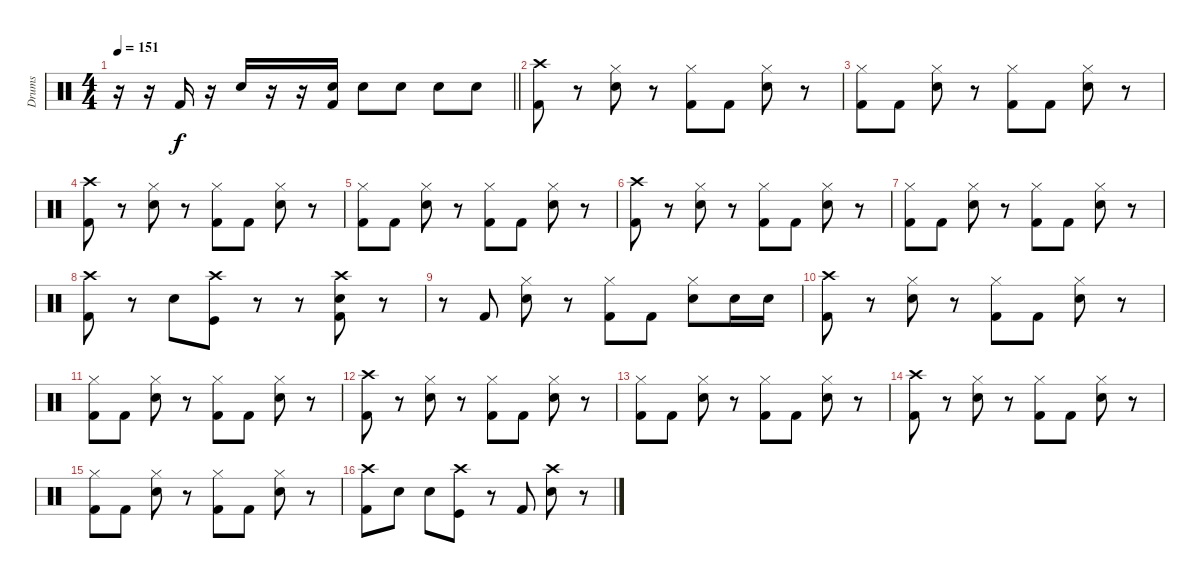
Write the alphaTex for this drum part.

\track ("Drums" "Drums") {instrument percussion}
\staff {score}
\articulation defaults
\ts (4 4)
\tempo 151
\clef neutral
\barLineRight lightlight
\ks c
r.16{dy f} r.16 "Kick (hit) 2".16 r.16 "Snare (hit) 2".16 r.16 r.16 ("Snare (hit) 2" "Kick (hit) 2").16 "Snare (hit) 2".8 "Snare (hit) 2".8 "Snare (hit) 2".8 "Snare (hit) 2".8 |
("Crash high (hit)" "Kick (hit) 2").8 r.8 ("Hi-Hat (closed)" "Snare (hit) 2").8 r.8 ("Hi-Hat (closed)" "Kick (hit) 2").8 "Kick (hit) 2".8 ("Hi-Hat (closed)" "Snare (hit) 2").8 r.8 |
("Hi-Hat (closed)" "Kick (hit) 2").8 "Kick (hit) 2".8 ("Hi-Hat (closed)" "Snare (hit) 2").8 r.8 ("Hi-Hat (closed)" "Kick (hit) 2").8 "Kick (hit) 2".8 ("Hi-Hat (closed)" "Snare (hit) 2").8 r.8 |
("Crash high (hit)" "Kick (hit) 2").8 r.8 ("Hi-Hat (closed)" "Snare (hit) 2").8 r.8 ("Hi-Hat (closed)" "Kick (hit) 2").8 "Kick (hit) 2".8 ("Hi-Hat (closed)" "Snare (hit) 2").8 r.8 |
("Hi-Hat (closed)" "Kick (hit) 2").8 "Kick (hit) 2".8 ("Hi-Hat (closed)" "Snare (hit) 2").8 r.8 ("Hi-Hat (closed)" "Kick (hit) 2").8 "Kick (hit) 2".8 ("Hi-Hat (closed)" "Snare (hit) 2").8 r.8 |
("Crash high (hit)" "Kick (hit) 2").8 r.8 ("Hi-Hat (closed)" "Snare (hit) 2").8 r.8 ("Hi-Hat (closed)" "Kick (hit) 2").8 "Kick (hit) 2".8 ("Hi-Hat (closed)" "Snare (hit) 2").8 r.8 |
("Hi-Hat (closed)" "Kick (hit) 2").8 "Kick (hit) 2".8 ("Hi-Hat (closed)" "Snare (hit) 2").8 r.8 ("Hi-Hat (closed)" "Kick (hit) 2").8 "Kick (hit) 2".8 ("Hi-Hat (closed)" "Snare (hit) 2").8 r.8 |
("Crash high (hit)" "Kick (hit) 2").8 r.8 "Snare (hit) 2".8 ("Crash high (hit)" "Kick (hit)").8 r.8 r.8 ("Crash high (hit)" "Snare (hit) 2" "Kick (hit) 2").8 r.8 |
r.8 "Kick (hit) 2".8 ("Hi-Hat (closed)" "Snare (hit) 2").8 r.8 ("Hi-Hat (closed)" "Kick (hit) 2").8 "Kick (hit) 2".8 ("Hi-Hat (closed)" "Snare (hit) 2").8 "Snare (hit) 2".16 "Snare (hit) 2".16 |
("Crash high (hit)" "Kick (hit) 2").8 r.8 ("Hi-Hat (closed)" "Snare (hit) 2").8 r.8 ("Hi-Hat (closed)" "Kick (hit) 2").8 "Kick (hit) 2".8 ("Hi-Hat (closed)" "Snare (hit) 2").8 r.8 |
("Hi-Hat (closed)" "Kick (hit) 2").8 "Kick (hit) 2".8 ("Hi-Hat (closed)" "Snare (hit) 2").8 r.8 ("Hi-Hat (closed)" "Kick (hit) 2").8 "Kick (hit) 2".8 ("Hi-Hat (closed)" "Snare (hit) 2").8 r.8 |
("Crash high (hit)" "Kick (hit) 2").8 r.8 ("Hi-Hat (closed)" "Snare (hit) 2").8 r.8 ("Hi-Hat (closed)" "Kick (hit) 2").8 "Kick (hit) 2".8 ("Hi-Hat (closed)" "Snare (hit) 2").8 r.8 |
("Hi-Hat (closed)" "Kick (hit) 2").8 "Kick (hit) 2".8 ("Hi-Hat (closed)" "Snare (hit) 2").8 r.8 ("Hi-Hat (closed)" "Kick (hit) 2").8 "Kick (hit) 2".8 ("Hi-Hat (closed)" "Snare (hit) 2").8 r.8 |
("Crash high (hit)" "Kick (hit) 2").8 r.8 ("Hi-Hat (closed)" "Snare (hit) 2").8 r.8 ("Hi-Hat (closed)" "Kick (hit) 2").8 "Kick (hit) 2".8 ("Hi-Hat (closed)" "Snare (hit) 2").8 r.8 |
("Hi-Hat (closed)" "Kick (hit) 2").8 "Kick (hit) 2".8 ("Hi-Hat (closed)" "Snare (hit) 2").8 r.8 ("Hi-Hat (closed)" "Kick (hit) 2").8 "Kick (hit) 2".8 ("Hi-Hat (closed)" "Snare (hit) 2").8 r.8 |
("Crash high (hit)" "Kick (hit) 2").8 "Snare (hit) 2".8 "Snare (hit) 2".8 ("Crash high (hit)" "Kick (hit)").8 r.8 "Kick (hit) 2".8 ("Crash high (hit)" "Snare (hit) 2").8 r.8
